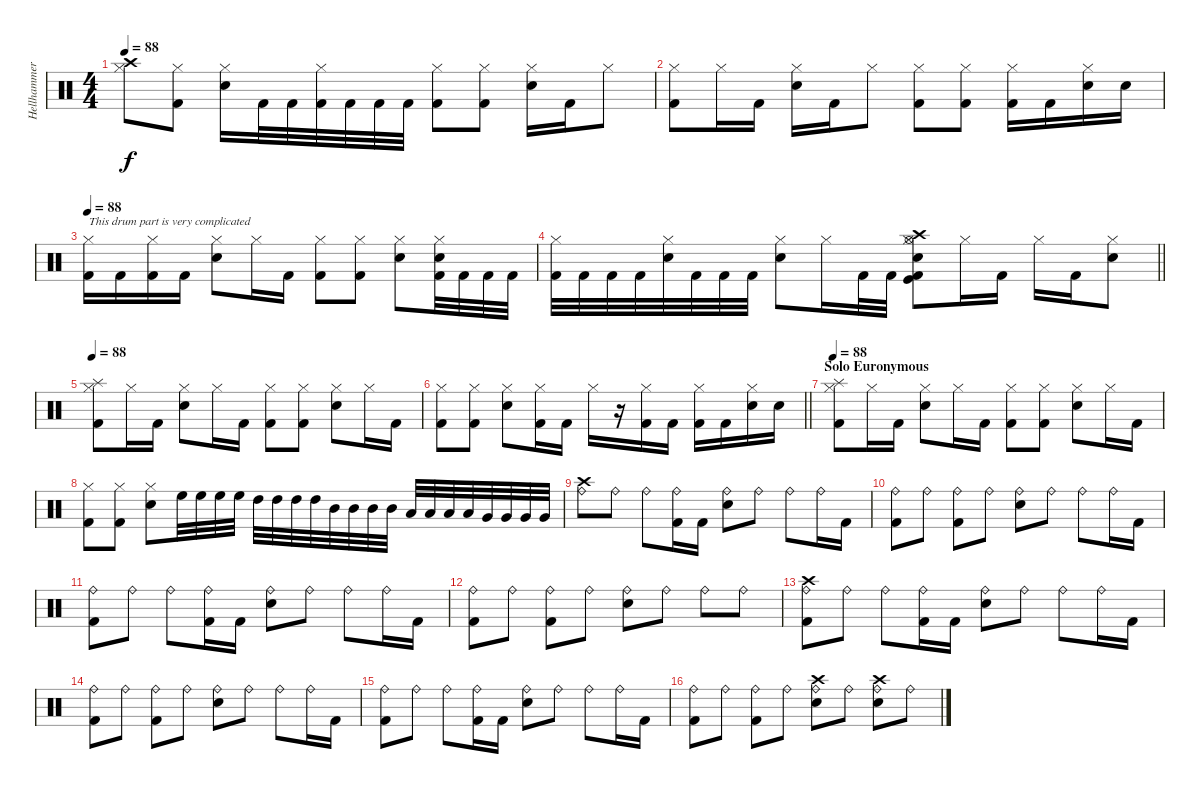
\track ("Hellhammer" "Hellhammer") {instrument percussion}
\staff {score}
\articulation defaults
\ts (4 4)
\tempo 88
\clef neutral
\ks c
("Hi-Hat (closed)" "Crash high (hit)").8{dy f} ("Hi-Hat (closed)" "Kick (hit) 2").8 ("Hi-Hat (closed)" "Snare (hit) 2").16 "Kick (hit) 2".32 "Kick (hit) 2".32 ("Hi-Hat (closed)" "Kick (hit) 2").32 "Kick (hit) 2".32 "Kick (hit) 2".32 "Kick (hit) 2".32 ("Hi-Hat (closed)" "Kick (hit) 2").8 ("Hi-Hat (closed)" "Kick (hit) 2").8 ("Hi-Hat (closed)" "Snare (hit) 2").16 "Kick (hit) 2".16 "Hi-Hat (closed)".8 |
("Hi-Hat (closed)" "Kick (hit) 2").8 "Hi-Hat (closed)".16 "Kick (hit) 2".16 ("Hi-Hat (closed)" "Snare (hit) 2").16 "Kick (hit) 2".16 "Hi-Hat (closed)".8 ("Hi-Hat (closed)" "Kick (hit) 2").8 ("Hi-Hat (closed)" "Kick (hit) 2").8 ("Hi-Hat (closed)" "Kick (hit) 2").16 "Kick (hit) 2".16 ("Hi-Hat (closed)" "Snare (hit) 2").16 "Snare (hit) 2".16 |
\tempo 88
("Hi-Hat (closed)" "Kick (hit) 2").16{txt "This drum part is very complicated "} "Kick (hit) 2".16 ("Hi-Hat (closed)" "Kick (hit) 2").16 "Kick (hit) 2".16 ("Hi-Hat (closed)" "Snare (hit) 2").8 "Hi-Hat (closed)".16 "Kick (hit) 2".16 ("Hi-Hat (closed)" "Kick (hit) 2").8 ("Hi-Hat (closed)" "Kick (hit) 2").8 ("Hi-Hat (closed)" "Snare (hit) 2").8 ("Hi-Hat (closed)" "Kick (hit) 2" "Snare (hit) 2").32 "Kick (hit) 2".32 "Kick (hit) 2".32 "Kick (hit) 2".32 |
\barLineRight lightlight
("Hi-Hat (closed)" "Kick (hit) 2").32 "Kick (hit) 2".32 "Kick (hit) 2".32 "Kick (hit) 2".32 ("Hi-Hat (closed)" "Snare (hit) 2").32 "Kick (hit) 2".32 "Kick (hit) 2".32 "Kick (hit) 2".32 ("Hi-Hat (closed)" "Snare (hit) 2").8 "Hi-Hat (closed)".16 "Kick (hit) 2".32 "Kick (hit) 2".32 ("Kick (hit)" "Hi-Hat (closed)" "Hi-Hat (open)" "Crash high (hit)" "Snare (hit) 2" "Kick (hit) 2").8 "Hi-Hat (closed)".16 "Kick (hit) 2".16 "Hi-Hat (closed)".16 "Kick (hit) 2".16 ("Hi-Hat (closed)" "Snare (hit) 2").8 |
\tempo 88
("Hi-Hat (closed)" "Splash (hit)" "Kick (hit) 2").8 "Hi-Hat (closed)".16 "Kick (hit) 2".16 ("Hi-Hat (closed)" "Snare (hit) 2").8 "Hi-Hat (closed)".16 "Kick (hit) 2".16 ("Hi-Hat (closed)" "Kick (hit) 2").8 ("Hi-Hat (closed)" "Kick (hit) 2").8 ("Hi-Hat (closed)" "Snare (hit) 2").8 "Hi-Hat (closed)".16 "Kick (hit) 2".16 |
\barLineRight lightlight
("Hi-Hat (closed)" "Kick (hit) 2").8 ("Hi-Hat (closed)" "Kick (hit) 2").8 ("Hi-Hat (closed)" "Snare (hit) 2").8 ("Hi-Hat (closed)" "Kick (hit) 2").16 "Kick (hit) 2".16 "Hi-Hat (closed)".16 r.16 ("Hi-Hat (closed)" "Kick (hit) 2").16 "Kick (hit) 2".16 ("Hi-Hat (closed)" "Kick (hit) 2").16 "Kick (hit) 2".16 ("Hi-Hat (closed)" "Snare (hit) 2").16 "Snare (hit) 2".16 |
\section ("" "Solo Euronymous")
\tempo 88
("Splash (hit)" "Hi-Hat (closed)" "Kick (hit) 2").8 "Hi-Hat (closed)".16 "Kick (hit) 2".16 ("Hi-Hat (closed)" "Snare (hit) 2").8 "Hi-Hat (closed)".16 "Kick (hit) 2".16 ("Hi-Hat (closed)" "Kick (hit) 2").8 ("Hi-Hat (closed)" "Kick (hit) 2").8 ("Hi-Hat (closed)" "Snare (hit) 2").8 "Hi-Hat (closed)".16 "Kick (hit) 2".16 |
("Hi-Hat (closed)" "Kick (hit) 2").8 ("Hi-Hat (closed)" "Kick (hit) 2").8 ("Hi-Hat (closed)" "Snare (hit) 2").8 "High Floor Tom (hit)".32 "High Floor Tom (hit)".32 "High Floor Tom (hit)".32 "High Floor Tom (hit)".32 "High Tom (hit)".32 "High Tom (hit)".32 "High Tom (hit)".32 "High Tom (hit)".32 "Mid Tom (hit)".32 "Mid Tom (hit)".32 "Mid Tom (hit)".32 "Mid Tom (hit)".32 "Low Tom (hit)".32 "Low Tom (hit)".32 "Low Tom (hit)".32 "Low Tom (hit)".32 "Very Low Tom (hit)".32 "Very Low Tom (hit)".32 "Very Low Tom (hit)".32 "Very Low Tom (hit)".32 |
("Crash high (hit)" "Ride (bell)").8 "Ride (bell)".8 "Ride (bell)".8 ("Ride (bell)" "Kick (hit) 2").16 "Kick (hit) 2".16 ("Ride (bell)" "Snare (hit) 2").8 "Ride (bell)".8 "Ride (bell)".8 "Ride (bell)".16 "Kick (hit) 2".16 |
("Ride (bell)" "Kick (hit) 2").8 "Ride (bell)".8 ("Ride (bell)" "Kick (hit) 2").8 "Ride (bell)".8 ("Ride (bell)" "Snare (hit) 2").8 "Ride (bell)".8 "Ride (bell)".8 "Ride (bell)".16 "Kick (hit) 2".16 |
("Ride (bell)" "Kick (hit) 2").8 "Ride (bell)".8 "Ride (bell)".8 ("Ride (bell)" "Kick (hit) 2").16 "Kick (hit) 2".16 ("Ride (bell)" "Snare (hit) 2").8 "Ride (bell)".8 "Ride (bell)".8 "Ride (bell)".16 "Kick (hit) 2".16 |
("Ride (bell)" "Kick (hit) 2").8 "Ride (bell)".8 ("Ride (bell)" "Kick (hit) 2").8 "Ride (bell)".8 ("Ride (bell)" "Snare (hit) 2").8 "Ride (bell)".8 "Ride (bell)".8 "Ride (bell)".8 |
("Crash high (hit)" "Ride (bell)" "Kick (hit) 2").8 "Ride (bell)".8 "Ride (bell)".8 ("Ride (bell)" "Kick (hit) 2").16 "Kick (hit) 2".16 ("Ride (bell)" "Snare (hit) 2").8 "Ride (bell)".8 "Ride (bell)".8 "Ride (bell)".16 "Kick (hit) 2".16 |
("Ride (bell)" "Kick (hit) 2").8 "Ride (bell)".8 ("Ride (bell)" "Kick (hit) 2").8 "Ride (bell)".8 ("Ride (bell)" "Snare (hit) 2").8 "Ride (bell)".8 "Ride (bell)".8 "Ride (bell)".16 "Kick (hit) 2".16 |
("Ride (bell)" "Kick (hit) 2").8 "Ride (bell)".8 "Ride (bell)".8 ("Ride (bell)" "Kick (hit) 2").16 "Kick (hit) 2".16 ("Ride (bell)" "Snare (hit) 2").8 "Ride (bell)".8 "Ride (bell)".8 "Ride (bell)".16 "Kick (hit) 2".16 |
("Ride (bell)" "Kick (hit) 2").8 "Ride (bell)".8 ("Ride (bell)" "Kick (hit) 2").8 "Ride (bell)".8 ("Crash high (hit)" "Ride (bell)" "Snare (hit) 2").8 "Ride (bell)".8 ("Ride (bell)" "Crash high (hit)" "Snare (hit) 2").8 "Ride (bell)".8
